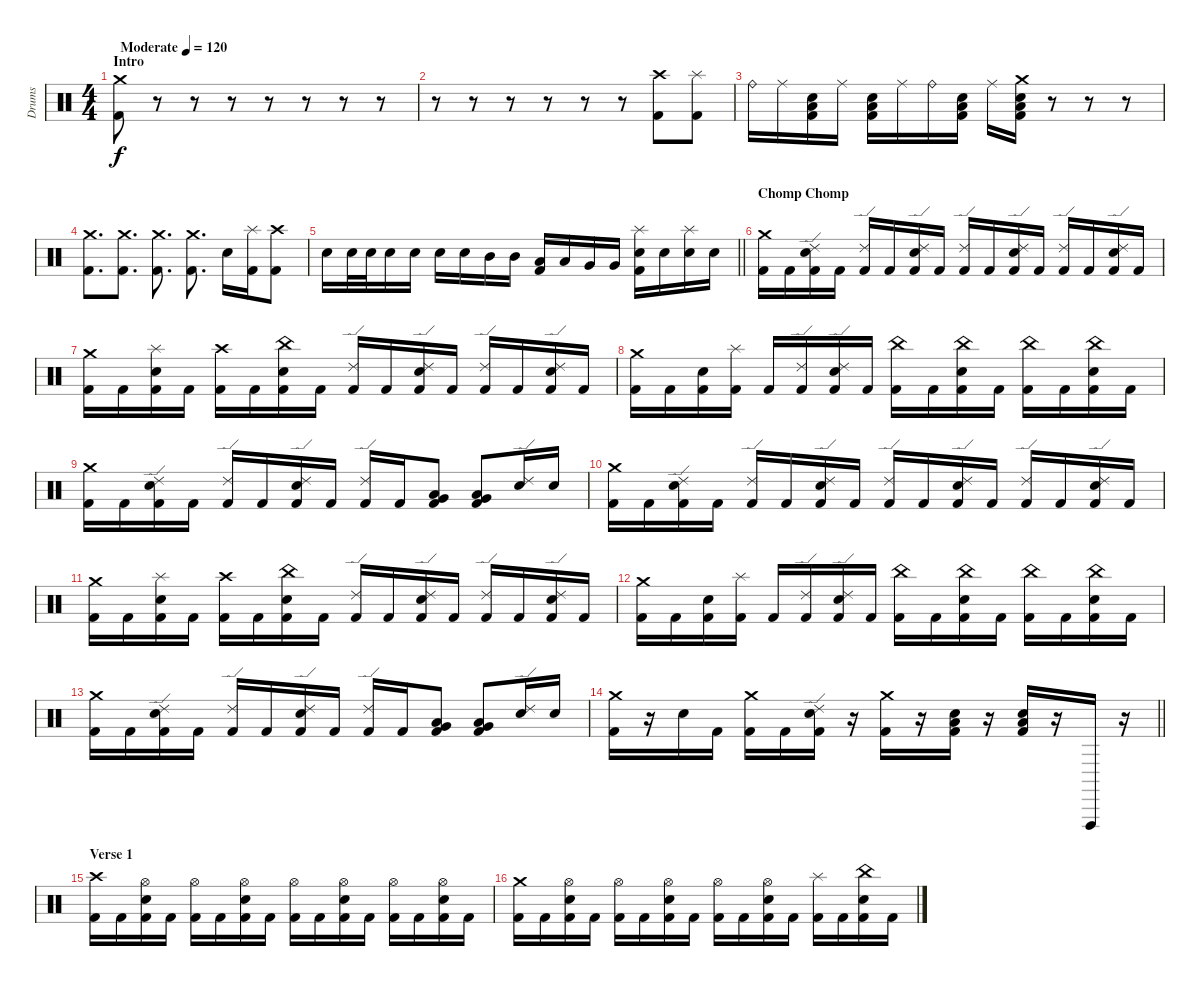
\track ("Drums" "Drums") {instrument percussion}
\staff {score}
\articulation defaults
\ts (4 4)
\section ("" "Intro")
\tempo (120 "Moderate")
\clef neutral
\ks c
("Crash medium (hit)" "Kick (hit) 2").8{dy f} r.8 r.8 r.8 r.8 r.8 r.8 r.8 |
r.8 r.8 r.8 r.8 r.8 r.8 ("Crash high (hit)" "Kick (hit) 2").8 ("Splash (hit)" "Kick (hit) 2").8 |
"Ride (bell)".16 "Ride (middle)".16 ("Low Floor Tom (hit)" "Snare (hit) 2" "Kick (hit) 2").16 "Ride (middle)".16 ("Low Floor Tom (hit)" "Snare (hit) 2" "Kick (hit) 2").16 "Ride (middle)".16 "Ride (bell)".16 ("Low Floor Tom (hit)" "Snare (hit) 2" "Kick (hit) 2").16 "Ride (middle)".16 ("Crash medium (hit)" "Low Floor Tom (hit)" "Snare (hit) 2" "Kick (hit) 2").16 r.8 r.8 r.8 |
("Crash medium (hit)" "Kick (hit) 2").8{d} ("Crash medium (hit)" "Kick (hit) 2").8{d} ("Crash medium (hit)" "Kick (hit) 2").8{d} ("Crash medium (hit)" "Kick (hit) 2").8{d} "Snare (hit) 2".16 ("Splash (hit)" "Kick (hit) 2").16 ("Crash high (hit)" "Kick (hit) 2").8 |
\barLineRight lightlight "Snare (hit) 2".16 "Snare (hit) 2".32 "Snare (hit) 2".32 "Snare (hit) 2".16 "Snare (hit) 2".16 "Snare (hit) 2".16 "Snare (hit) 2".16 "Mid Tom (hit)".16 "Mid Tom (hit)".16
("Low Tom (hit)" "Kick (hit) 2").16 "Low Tom (hit)".16 "Very Low Tom (hit)".16 "Very Low Tom (hit)".16 ("Splash (hit)" "Snare (hit) 2" "Kick (hit) 2").16 "Snare (hit) 2".16 ("Splash (hit)" "Snare (hit) 2").16 "Snare (hit) 2".16 |
\section ("" "Chomp Chomp")
("Crash medium (hit)" "Kick (hit) 2").16 "Kick (hit) 2".16 ("Ride (edge) 2" "Snare (hit) 2" "Kick (hit) 2").16 "Kick (hit) 2".16 ("Ride (edge) 2" "Kick (hit) 2").16 "Kick (hit) 2".16 ("Ride (edge) 2" "Snare (hit) 2" "Kick (hit) 2").16 "Kick (hit) 2".16 ("Ride (edge) 2" "Kick (hit) 2").16 "Kick (hit) 2".16 ("Ride (edge) 2" "Snare (hit) 2" "Kick (hit) 2").16 "Kick (hit) 2".16 ("Ride (edge) 2" "Kick (hit) 2").16 "Kick (hit) 2".16 ("Ride (edge) 2" "Snare (hit) 2" "Kick (hit) 2").16 "Kick (hit) 2".16 |
("Crash medium (hit)" "Kick (hit) 2").16 "Kick (hit) 2".16 ("Splash (hit)" "Snare (hit) 2" "Kick (hit) 2").16 "Kick (hit) 2".16 ("Crash high (hit)" "Kick (hit) 2").16 "Kick (hit) 2".16 ("China (hit)" "Snare (hit) 2" "Kick (hit) 2").16 "Kick (hit) 2".16 ("Ride (edge) 2" "Kick (hit) 2").16 "Kick (hit) 2".16 ("Ride (edge) 2" "Snare (hit) 2" "Kick (hit) 2").16 "Kick (hit) 2".16 ("Ride (edge) 2" "Kick (hit) 2").16 "Kick (hit) 2".16 ("Ride (edge) 2" "Snare (hit) 2" "Kick (hit) 2").16 "Kick (hit) 2".16 |
("Crash medium (hit)" "Kick (hit) 2").16 "Kick (hit) 2".16 ("Snare (hit) 2" "Kick (hit) 2").16 ("Splash (hit)" "Kick (hit) 2").16 "Kick (hit) 2".16 ("Ride (edge) 2" "Kick (hit) 2").16 ("Ride (edge) 2" "Snare (hit) 2" "Kick (hit) 2").16 "Kick (hit) 2".16 ("China (hit)" "Kick (hit) 2").16 "Kick (hit) 2".16 ("China (hit)" "Snare (hit) 2" "Kick (hit) 2").16 "Kick (hit) 2".16 ("China (hit)" "Kick (hit) 2").16 "Kick (hit) 2".16 ("China (hit)" "Snare (hit) 2" "Kick (hit) 2").16 "Kick (hit) 2".16 |
("Crash medium (hit)" "Kick (hit) 2").16 "Kick (hit) 2".16 ("Ride (edge) 2" "Snare (hit) 2" "Kick (hit) 2").16 "Kick (hit) 2".16 ("Ride (edge) 2" "Kick (hit) 2").16 "Kick (hit) 2".16 ("Ride (edge) 2" "Snare (hit) 2" "Kick (hit) 2").16 "Kick (hit) 2".16 ("Ride (edge) 2" "Kick (hit) 2").16 "Kick (hit) 2".16 ("Very Low Tom (hit)" "Low Floor Tom (hit)" "Kick (hit) 2").8 ("Very Low Tom (hit)" "Low Floor Tom (hit)" "Kick (hit) 2").8 ("Ride (edge) 2" "Snare (hit) 2").16 "Snare (hit) 2".16 |
("Crash medium (hit)" "Kick (hit) 2").16 "Kick (hit) 2".16 ("Ride (edge) 2" "Snare (hit) 2" "Kick (hit) 2").16 "Kick (hit) 2".16 ("Ride (edge) 2" "Kick (hit) 2").16 "Kick (hit) 2".16 ("Ride (edge) 2" "Snare (hit) 2" "Kick (hit) 2").16 "Kick (hit) 2".16 ("Ride (edge) 2" "Kick (hit) 2").16 "Kick (hit) 2".16 ("Ride (edge) 2" "Snare (hit) 2" "Kick (hit) 2").16 "Kick (hit) 2".16 ("Ride (edge) 2" "Kick (hit) 2").16 "Kick (hit) 2".16 ("Ride (edge) 2" "Snare (hit) 2" "Kick (hit) 2").16 "Kick (hit) 2".16 |
("Crash medium (hit)" "Kick (hit) 2").16 "Kick (hit) 2".16 ("Splash (hit)" "Snare (hit) 2" "Kick (hit) 2").16 "Kick (hit) 2".16 ("Crash high (hit)" "Kick (hit) 2").16 "Kick (hit) 2".16 ("China (hit)" "Snare (hit) 2" "Kick (hit) 2").16 "Kick (hit) 2".16 ("Ride (edge) 2" "Kick (hit) 2").16 "Kick (hit) 2".16 ("Ride (edge) 2" "Snare (hit) 2" "Kick (hit) 2").16 "Kick (hit) 2".16 ("Ride (edge) 2" "Kick (hit) 2").16 "Kick (hit) 2".16 ("Ride (edge) 2" "Snare (hit) 2" "Kick (hit) 2").16 "Kick (hit) 2".16 |
("Crash medium (hit)" "Kick (hit) 2").16 "Kick (hit) 2".16 ("Snare (hit) 2" "Kick (hit) 2").16 ("Splash (hit)" "Kick (hit) 2").16 "Kick (hit) 2".16 ("Ride (edge) 2" "Kick (hit) 2").16 ("Ride (edge) 2" "Snare (hit) 2" "Kick (hit) 2").16 "Kick (hit) 2".16 ("China (hit)" "Kick (hit) 2").16 "Kick (hit) 2".16 ("China (hit)" "Snare (hit) 2" "Kick (hit) 2").16 "Kick (hit) 2".16 ("China (hit)" "Kick (hit) 2").16 "Kick (hit) 2".16 ("China (hit)" "Snare (hit) 2" "Kick (hit) 2").16 "Kick (hit) 2".16 |
("Crash medium (hit)" "Kick (hit) 2").16 "Kick (hit) 2".16 ("Ride (edge) 2" "Snare (hit) 2" "Kick (hit) 2").16 "Kick (hit) 2".16 ("Ride (edge) 2" "Kick (hit) 2").16 "Kick (hit) 2".16 ("Ride (edge) 2" "Snare (hit) 2" "Kick (hit) 2").16 "Kick (hit) 2".16 ("Ride (edge) 2" "Kick (hit) 2").16 "Kick (hit) 2".16 ("Very Low Tom (hit)" "Low Floor Tom (hit)" "Kick (hit) 2").8 ("Very Low Tom (hit)" "Low Floor Tom (hit)" "Kick (hit) 2").8 ("Ride (edge) 2" "Snare (hit) 2").16 "Snare (hit) 2".16 |
\barLineRight lightlight
("Crash medium (hit)" "Kick (hit) 2").16 r.16 "Snare (hit) 2".16 "Kick (hit) 2".16 ("Crash medium (hit)" "Kick (hit) 2").16 "Kick (hit) 2".16 ("Ride (edge) 2" "Snare (hit) 2" "Kick (hit) 2").16 r.16 ("Crash medium (hit)" "Kick (hit) 2").16 r.16 ("Low Floor Tom (hit)" "Snare (hit) 2" "Kick (hit) 2").16 r.16 ("Low Floor Tom (hit)" "Snare (hit) 2" "Kick (hit) 2").16 r.16 "Vibraslap (hit)".16 r.16 |
\section ("" "Verse 1")
("Crash high (hit)" "Kick (hit) 2").16 "Kick (hit) 2".16 ("Hi-Hat (open)" "Snare (hit) 2" "Kick (hit) 2").16 "Kick (hit) 2".16 ("Hi-Hat (open)" "Kick (hit) 2").16 "Kick (hit) 2".16 ("Hi-Hat (open)" "Snare (hit) 2" "Kick (hit) 2").16 "Kick (hit) 2".16 ("Hi-Hat (open)" "Kick (hit) 2").16 "Kick (hit) 2".16 ("Hi-Hat (open)" "Snare (hit) 2" "Kick (hit) 2").16 "Kick (hit) 2".16 ("Hi-Hat (open)" "Kick (hit) 2").16 "Kick (hit) 2".16 ("Hi-Hat (open)" "Snare (hit) 2" "Kick (hit) 2").16 "Kick (hit) 2".16 |
("Crash medium (hit)" "Kick (hit) 2").16 "Kick (hit) 2".16 ("Hi-Hat (open)" "Snare (hit) 2" "Kick (hit) 2").16 "Kick (hit) 2".16 ("Hi-Hat (open)" "Kick (hit) 2").16 "Kick (hit) 2".16 ("Hi-Hat (open)" "Snare (hit) 2" "Kick (hit) 2").16 "Kick (hit) 2".16 ("Hi-Hat (open)" "Kick (hit) 2").16 "Kick (hit) 2".16 ("Hi-Hat (open)" "Snare (hit) 2" "Kick (hit) 2").16 "Kick (hit) 2".16 ("Splash (hit)" "Kick (hit) 2").16 "Kick (hit) 2".16 ("China (hit)" "Snare (hit) 2" "Kick (hit) 2").16 "Kick (hit) 2".16
